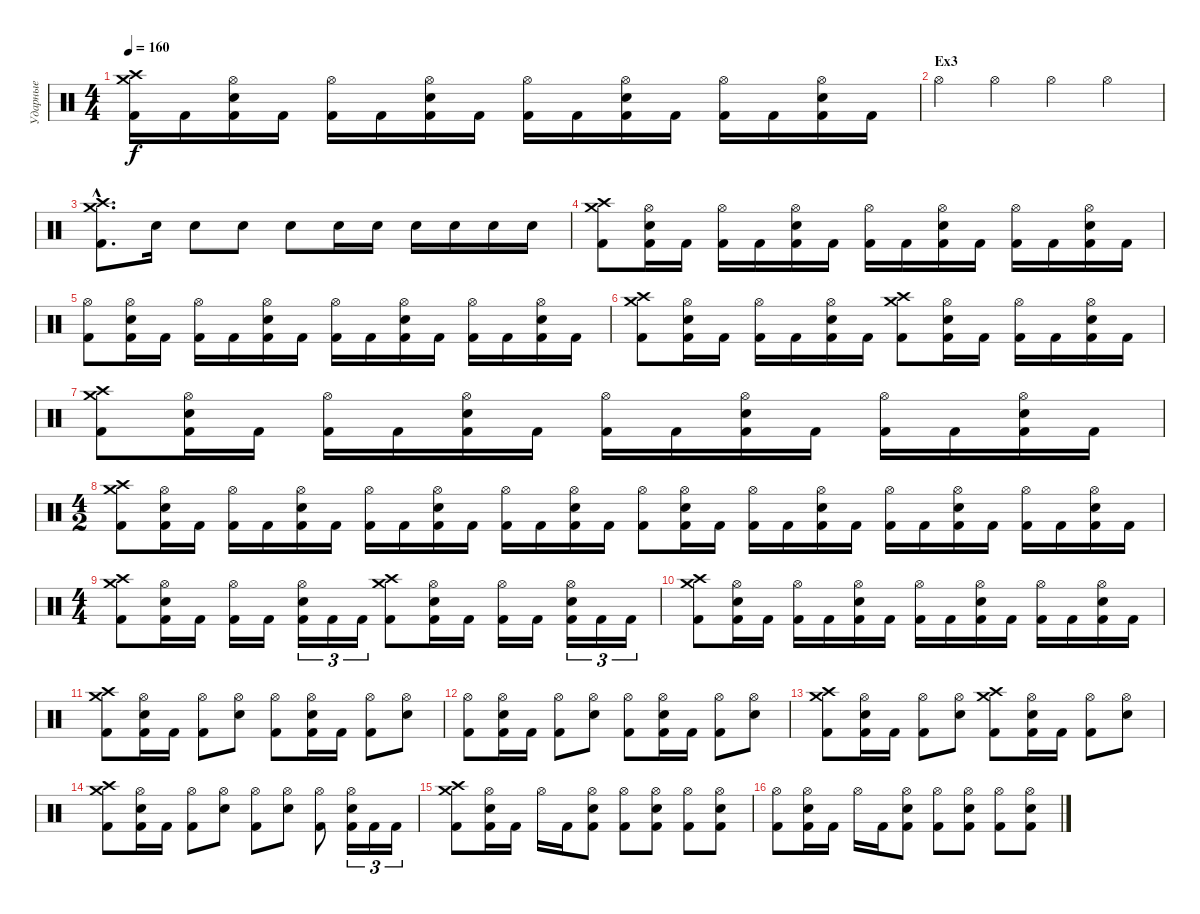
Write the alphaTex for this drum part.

\track ("Ударные" "Ударные") {instrument percussion}
\staff {score}
\articulation defaults
\ts (4 4)
\tempo 160
\clef neutral
\ks c
("Kick (hit) 2" "Crash high (hit)" "Crash medium (hit)").16{dy f} "Kick (hit) 2".16 ("Kick (hit) 2" "Electric Snare (hit)" "Hi-Hat (open)").16 "Kick (hit) 2".16 ("Kick (hit) 2" "Hi-Hat (open)").16 "Kick (hit) 2".16 ("Kick (hit) 2" "Electric Snare (hit)" "Hi-Hat (open)").16 "Kick (hit) 2".16 ("Kick (hit) 2" "Hi-Hat (open)").16 "Kick (hit) 2".16 ("Kick (hit) 2" "Electric Snare (hit)" "Hi-Hat (open)").16 "Kick (hit) 2".16 ("Kick (hit) 2" "Hi-Hat (open)").16 "Kick (hit) 2".16 ("Kick (hit) 2" "Electric Snare (hit)" "Hi-Hat (open)").16 "Kick (hit) 2".16 |
\section ("" "Ex3")
"Hi-Hat (open)".4 "Hi-Hat (open)".4 "Hi-Hat (open)".4 "Hi-Hat (open)".4 |
("Kick (hit) 2"{hac} "Crash high (hit)"{hac} "Crash medium (hit)"{hac}).8{d} "Electric Snare (hit)".16 "Electric Snare (hit)".8 "Electric Snare (hit)".8 "Electric Snare (hit)".8 "Electric Snare (hit)".16 "Electric Snare (hit)".16 "Electric Snare (hit)".16 "Electric Snare (hit)".16 "Electric Snare (hit)".16 "Electric Snare (hit)".16 |
("Kick (hit) 2" "Crash high (hit)" "Crash medium (hit)").8 ("Kick (hit) 2" "Electric Snare (hit)" "Hi-Hat (open)").16 "Kick (hit) 2".16 ("Kick (hit) 2" "Hi-Hat (open)").16 "Kick (hit) 2".16 ("Kick (hit) 2" "Electric Snare (hit)" "Hi-Hat (open)").16 "Kick (hit) 2".16 ("Kick (hit) 2" "Hi-Hat (open)").16 "Kick (hit) 2".16 ("Kick (hit) 2" "Electric Snare (hit)" "Hi-Hat (open)").16 "Kick (hit) 2".16 ("Kick (hit) 2" "Hi-Hat (open)").16 "Kick (hit) 2".16 ("Kick (hit) 2" "Electric Snare (hit)" "Hi-Hat (open)").16 "Kick (hit) 2".16 |
("Kick (hit) 2" "Hi-Hat (open)").8 ("Kick (hit) 2" "Electric Snare (hit)" "Hi-Hat (open)").16 "Kick (hit) 2".16 ("Kick (hit) 2" "Hi-Hat (open)").16 "Kick (hit) 2".16 ("Kick (hit) 2" "Electric Snare (hit)" "Hi-Hat (open)").16 "Kick (hit) 2".16 ("Kick (hit) 2" "Hi-Hat (open)").16 "Kick (hit) 2".16 ("Kick (hit) 2" "Electric Snare (hit)" "Hi-Hat (open)").16 "Kick (hit) 2".16 ("Kick (hit) 2" "Hi-Hat (open)").16 "Kick (hit) 2".16 ("Kick (hit) 2" "Electric Snare (hit)" "Hi-Hat (open)").16 "Kick (hit) 2".16 |
("Kick (hit) 2" "Crash high (hit)" "Crash medium (hit)").8 ("Kick (hit) 2" "Electric Snare (hit)" "Hi-Hat (open)").16 "Kick (hit) 2".16 ("Kick (hit) 2" "Hi-Hat (open)").16 "Kick (hit) 2".16 ("Kick (hit) 2" "Electric Snare (hit)" "Hi-Hat (open)").16 "Kick (hit) 2".16 ("Kick (hit) 2" "Crash high (hit)" "Crash medium (hit)").8 ("Kick (hit) 2" "Electric Snare (hit)" "Hi-Hat (open)").16 "Kick (hit) 2".16 ("Kick (hit) 2" "Hi-Hat (open)").16 "Kick (hit) 2".16 ("Kick (hit) 2" "Electric Snare (hit)" "Hi-Hat (open)").16 "Kick (hit) 2".16 |
("Kick (hit) 2" "Crash high (hit)" "Crash medium (hit)").8 ("Kick (hit) 2" "Electric Snare (hit)" "Hi-Hat (open)").16 "Kick (hit) 2".16 ("Kick (hit) 2" "Hi-Hat (open)").16 "Kick (hit) 2".16 ("Kick (hit) 2" "Electric Snare (hit)" "Hi-Hat (open)").16 "Kick (hit) 2".16 ("Kick (hit) 2" "Hi-Hat (open)").16 "Kick (hit) 2".16 ("Kick (hit) 2" "Electric Snare (hit)" "Hi-Hat (open)").16 "Kick (hit) 2".16 ("Kick (hit) 2" "Hi-Hat (open)").16 "Kick (hit) 2".16 ("Kick (hit) 2" "Electric Snare (hit)" "Hi-Hat (open)").16 "Kick (hit) 2".16 |
\ts (4 2)
("Kick (hit) 2" "Crash high (hit)" "Crash medium (hit)").8 ("Kick (hit) 2" "Electric Snare (hit)" "Hi-Hat (open)").16 "Kick (hit) 2".16 ("Kick (hit) 2" "Hi-Hat (open)").16 "Kick (hit) 2".16 ("Kick (hit) 2" "Electric Snare (hit)" "Hi-Hat (open)").16 "Kick (hit) 2".16 ("Kick (hit) 2" "Hi-Hat (open)").16 "Kick (hit) 2".16 ("Kick (hit) 2" "Electric Snare (hit)" "Hi-Hat (open)").16 "Kick (hit) 2".16 ("Kick (hit) 2" "Hi-Hat (open)").16 "Kick (hit) 2".16 ("Kick (hit) 2" "Electric Snare (hit)" "Hi-Hat (open)").16 "Kick (hit) 2".16 ("Kick (hit) 2" "Hi-Hat (open)").8 ("Kick (hit) 2" "Electric Snare (hit)" "Hi-Hat (open)").16 "Kick (hit) 2".16 ("Kick (hit) 2" "Hi-Hat (open)").16 "Kick (hit) 2".16 ("Kick (hit) 2" "Electric Snare (hit)" "Hi-Hat (open)").16 "Kick (hit) 2".16 ("Kick (hit) 2" "Hi-Hat (open)").16 "Kick (hit) 2".16 ("Kick (hit) 2" "Electric Snare (hit)" "Hi-Hat (open)").16 "Kick (hit) 2".16 ("Kick (hit) 2" "Hi-Hat (open)").16 "Kick (hit) 2".16 ("Kick (hit) 2" "Electric Snare (hit)" "Hi-Hat (open)").16 "Kick (hit) 2".16 |
\ts (4 4)
("Kick (hit) 2" "Crash high (hit)" "Crash medium (hit)").8 ("Kick (hit) 2" "Electric Snare (hit)" "Hi-Hat (open)").16 "Kick (hit) 2".16 ("Kick (hit) 2" "Hi-Hat (open)").16 "Kick (hit) 2".16 ("Kick (hit) 2" "Electric Snare (hit)" "Hi-Hat (open)").16{tu (3 2)} "Kick (hit) 2".16{tu (3 2)} "Kick (hit) 2".16{tu (3 2)} ("Kick (hit) 2" "Crash high (hit)" "Crash medium (hit)").8 ("Kick (hit) 2" "Electric Snare (hit)" "Hi-Hat (open)").16 "Kick (hit) 2".16 ("Kick (hit) 2" "Hi-Hat (open)").16 "Kick (hit) 2".16 ("Kick (hit) 2" "Electric Snare (hit)" "Hi-Hat (open)").16{tu (3 2)} "Kick (hit) 2".16{tu (3 2)} "Kick (hit) 2".16{tu (3 2)} |
("Kick (hit) 2" "Crash high (hit)" "Crash medium (hit)").8 ("Kick (hit) 2" "Electric Snare (hit)" "Hi-Hat (open)").16 "Kick (hit) 2".16 ("Kick (hit) 2" "Hi-Hat (open)").16 "Kick (hit) 2".16 ("Kick (hit) 2" "Electric Snare (hit)" "Hi-Hat (open)").16 "Kick (hit) 2".16 ("Kick (hit) 2" "Hi-Hat (open)").16 "Kick (hit) 2".16 ("Kick (hit) 2" "Electric Snare (hit)" "Hi-Hat (open)").16 "Kick (hit) 2".16 ("Kick (hit) 2" "Hi-Hat (open)").16 "Kick (hit) 2".16 ("Kick (hit) 2" "Electric Snare (hit)" "Hi-Hat (open)").16 "Kick (hit) 2".16 |
("Kick (hit) 2" "Crash high (hit)" "Crash medium (hit)").8 ("Kick (hit) 2" "Electric Snare (hit)" "Hi-Hat (open)").16 "Kick (hit) 2".16 ("Kick (hit) 2" "Hi-Hat (open)").8 ("Electric Snare (hit)" "Hi-Hat (open)").8 ("Kick (hit) 2" "Hi-Hat (open)").8 ("Kick (hit) 2" "Electric Snare (hit)" "Hi-Hat (open)").16 "Kick (hit) 2".16 ("Kick (hit) 2" "Hi-Hat (open)").8 ("Electric Snare (hit)" "Hi-Hat (open)").8 |
("Kick (hit) 2" "Hi-Hat (open)").8 ("Kick (hit) 2" "Electric Snare (hit)" "Hi-Hat (open)").16 "Kick (hit) 2".16 ("Kick (hit) 2" "Hi-Hat (open)").8 ("Electric Snare (hit)" "Hi-Hat (open)").8 ("Kick (hit) 2" "Hi-Hat (open)").8 ("Kick (hit) 2" "Electric Snare (hit)" "Hi-Hat (open)").16 "Kick (hit) 2".16 ("Kick (hit) 2" "Hi-Hat (open)").8 ("Electric Snare (hit)" "Hi-Hat (open)").8 |
("Kick (hit) 2" "Crash high (hit)" "Crash medium (hit)").8 ("Kick (hit) 2" "Electric Snare (hit)" "Hi-Hat (open)").16 "Kick (hit) 2".16 ("Kick (hit) 2" "Hi-Hat (open)").8 ("Electric Snare (hit)" "Hi-Hat (open)").8 ("Kick (hit) 2" "Crash high (hit)" "Crash medium (hit)").8 ("Kick (hit) 2" "Electric Snare (hit)" "Hi-Hat (open)").16 "Kick (hit) 2".16 ("Kick (hit) 2" "Hi-Hat (open)").8 ("Electric Snare (hit)" "Hi-Hat (open)").8 |
("Kick (hit) 2" "Crash high (hit)" "Crash medium (hit)").8 ("Kick (hit) 2" "Electric Snare (hit)" "Hi-Hat (open)").16 "Kick (hit) 2".16 ("Kick (hit) 2" "Hi-Hat (open)").8 ("Electric Snare (hit)" "Hi-Hat (open)").8 ("Kick (hit) 2" "Hi-Hat (open)").8 ("Electric Snare (hit)" "Hi-Hat (open)").8 ("Kick (hit) 2" "Hi-Hat (open)").8 ("Kick (hit) 2" "Electric Snare (hit)" "Hi-Hat (open)").16{tu (3 2)} "Kick (hit) 2".16{tu (3 2)} "Kick (hit) 2".16{tu (3 2)} |
("Kick (hit) 2" "Crash high (hit)" "Crash medium (hit)").8 ("Kick (hit) 2" "Electric Snare (hit)" "Hi-Hat (open)").16 "Kick (hit) 2".16 "Hi-Hat (open)".16 "Kick (hit) 2".16 ("Kick (hit) 2" "Electric Snare (hit)" "Hi-Hat (open)").8 ("Kick (hit) 2" "Hi-Hat (open)").8 ("Kick (hit) 2" "Electric Snare (hit)" "Hi-Hat (open)").8 ("Kick (hit) 2" "Hi-Hat (open)").8 ("Kick (hit) 2" "Electric Snare (hit)" "Hi-Hat (open)").8 |
("Kick (hit) 2" "Hi-Hat (open)").8 ("Kick (hit) 2" "Electric Snare (hit)" "Hi-Hat (open)").16 "Kick (hit) 2".16 "Hi-Hat (open)".16 "Kick (hit) 2".16 ("Kick (hit) 2" "Electric Snare (hit)" "Hi-Hat (open)").8 ("Kick (hit) 2" "Hi-Hat (open)").8 ("Kick (hit) 2" "Electric Snare (hit)" "Hi-Hat (open)").8 ("Kick (hit) 2" "Hi-Hat (open)").8 ("Kick (hit) 2" "Electric Snare (hit)" "Hi-Hat (open)").8
